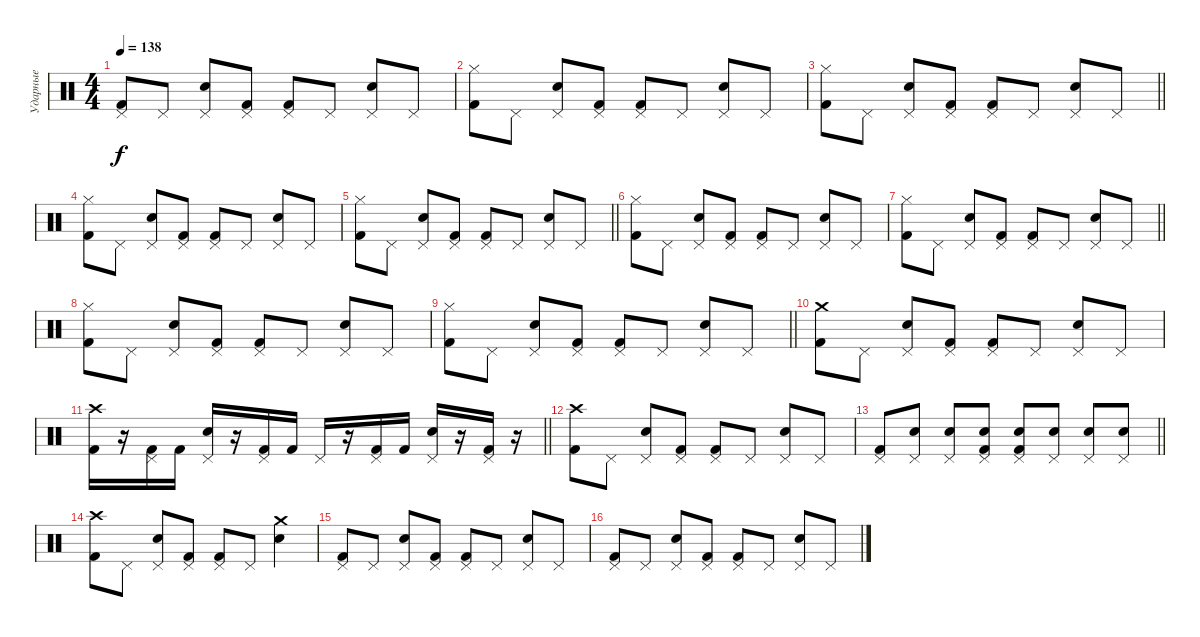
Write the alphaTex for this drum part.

\track ("Ударные" "Ударные") {instrument percussion}
\staff {score}
\articulation defaults
\ts (4 4)
\tempo 138
\clef neutral
\ks c
("Pedal Hi-Hat (hit)" "Kick (hit) 2").8{dy f} "Pedal Hi-Hat (hit)".8 ("Pedal Hi-Hat (hit)" "Electric Snare (hit)").8 ("Pedal Hi-Hat (hit)" "Kick (hit) 2").8 ("Pedal Hi-Hat (hit)" "Kick (hit) 2").8 "Pedal Hi-Hat (hit)".8 ("Pedal Hi-Hat (hit)" "Electric Snare (hit)").8 "Pedal Hi-Hat (hit)".8 |
("Hi-Hat (closed)" "Kick (hit) 2").8 "Pedal Hi-Hat (hit)".8 ("Pedal Hi-Hat (hit)" "Electric Snare (hit)").8 ("Pedal Hi-Hat (hit)" "Kick (hit) 2").8 ("Pedal Hi-Hat (hit)" "Kick (hit) 2").8 "Pedal Hi-Hat (hit)".8 ("Pedal Hi-Hat (hit)" "Electric Snare (hit)").8 "Pedal Hi-Hat (hit)".8 |
\barLineRight lightlight
("Hi-Hat (closed)" "Kick (hit) 2").8 "Pedal Hi-Hat (hit)".8 ("Pedal Hi-Hat (hit)" "Electric Snare (hit)").8 ("Pedal Hi-Hat (hit)" "Kick (hit) 2").8 ("Pedal Hi-Hat (hit)" "Kick (hit) 2").8 "Pedal Hi-Hat (hit)".8 ("Pedal Hi-Hat (hit)" "Electric Snare (hit)").8 "Pedal Hi-Hat (hit)".8 |
("Hi-Hat (closed)" "Kick (hit) 2").8 "Pedal Hi-Hat (hit)".8 ("Pedal Hi-Hat (hit)" "Electric Snare (hit)").8 ("Pedal Hi-Hat (hit)" "Kick (hit) 2").8 ("Pedal Hi-Hat (hit)" "Kick (hit) 2").8 "Pedal Hi-Hat (hit)".8 ("Pedal Hi-Hat (hit)" "Electric Snare (hit)").8 "Pedal Hi-Hat (hit)".8 |
\barLineRight lightlight
("Hi-Hat (closed)" "Kick (hit) 2").8 "Pedal Hi-Hat (hit)".8 ("Pedal Hi-Hat (hit)" "Electric Snare (hit)").8 ("Pedal Hi-Hat (hit)" "Kick (hit) 2").8 ("Pedal Hi-Hat (hit)" "Kick (hit) 2").8 "Pedal Hi-Hat (hit)".8 ("Pedal Hi-Hat (hit)" "Electric Snare (hit)").8 "Pedal Hi-Hat (hit)".8 |
("Hi-Hat (closed)" "Kick (hit) 2").8 "Pedal Hi-Hat (hit)".8 ("Pedal Hi-Hat (hit)" "Electric Snare (hit)").8 ("Pedal Hi-Hat (hit)" "Kick (hit) 2").8 ("Pedal Hi-Hat (hit)" "Kick (hit) 2").8 "Pedal Hi-Hat (hit)".8 ("Pedal Hi-Hat (hit)" "Electric Snare (hit)").8 "Pedal Hi-Hat (hit)".8 |
\barLineRight lightlight
("Hi-Hat (closed)" "Kick (hit) 2").8 "Pedal Hi-Hat (hit)".8 ("Pedal Hi-Hat (hit)" "Electric Snare (hit)").8 ("Pedal Hi-Hat (hit)" "Kick (hit) 2").8 ("Pedal Hi-Hat (hit)" "Kick (hit) 2").8 "Pedal Hi-Hat (hit)".8 ("Pedal Hi-Hat (hit)" "Electric Snare (hit)").8 "Pedal Hi-Hat (hit)".8 |
("Hi-Hat (closed)" "Kick (hit) 2").8 "Pedal Hi-Hat (hit)".8 ("Pedal Hi-Hat (hit)" "Electric Snare (hit)").8 ("Pedal Hi-Hat (hit)" "Kick (hit) 2").8 ("Pedal Hi-Hat (hit)" "Kick (hit) 2").8 "Pedal Hi-Hat (hit)".8 ("Pedal Hi-Hat (hit)" "Electric Snare (hit)").8 "Pedal Hi-Hat (hit)".8 |
\barLineRight lightlight
("Hi-Hat (closed)" "Kick (hit) 2").8 "Pedal Hi-Hat (hit)".8 ("Pedal Hi-Hat (hit)" "Electric Snare (hit)").8 ("Pedal Hi-Hat (hit)" "Kick (hit) 2").8 ("Pedal Hi-Hat (hit)" "Kick (hit) 2").8 "Pedal Hi-Hat (hit)".8 ("Pedal Hi-Hat (hit)" "Electric Snare (hit)").8 "Pedal Hi-Hat (hit)".8 |
("Crash medium (hit)" "Kick (hit) 2").8 "Pedal Hi-Hat (hit)".8 ("Pedal Hi-Hat (hit)" "Electric Snare (hit)").8 ("Pedal Hi-Hat (hit)" "Kick (hit) 2").8 ("Pedal Hi-Hat (hit)" "Kick (hit) 2").8 "Pedal Hi-Hat (hit)".8 ("Pedal Hi-Hat (hit)" "Electric Snare (hit)").8 "Pedal Hi-Hat (hit)".8 |
\barLineRight lightlight
("Crash high (hit)" "Kick (hit) 2").16 r.16 ("Pedal Hi-Hat (hit)" "Kick (hit) 2").16 "Kick (hit) 2".16 ("Pedal Hi-Hat (hit)" "Electric Snare (hit)").16 r.16 ("Pedal Hi-Hat (hit)" "Kick (hit) 2").16 "Kick (hit) 2".16 "Pedal Hi-Hat (hit)".16 r.16 ("Pedal Hi-Hat (hit)" "Kick (hit) 2").16 "Kick (hit) 2".16 ("Pedal Hi-Hat (hit)" "Electric Snare (hit)").16 r.16 ("Pedal Hi-Hat (hit)" "Kick (hit) 2").16 r.16 |
("Crash high (hit)" "Kick (hit) 2").8 "Pedal Hi-Hat (hit)".8 ("Pedal Hi-Hat (hit)" "Electric Snare (hit)").8 ("Pedal Hi-Hat (hit)" "Kick (hit) 2").8 ("Pedal Hi-Hat (hit)" "Kick (hit) 2").8 "Pedal Hi-Hat (hit)".8 ("Pedal Hi-Hat (hit)" "Electric Snare (hit)").8 "Pedal Hi-Hat (hit)".8 |
\barLineRight lightlight
("Pedal Hi-Hat (hit)" "Kick (hit) 2").8 ("Pedal Hi-Hat (hit)" "Electric Snare (hit)").8 ("Pedal Hi-Hat (hit)" "Electric Snare (hit)").8 ("Pedal Hi-Hat (hit)" "Electric Snare (hit)" "Kick (hit) 2").8 ("Pedal Hi-Hat (hit)" "Electric Snare (hit)" "Kick (hit) 2").8 ("Pedal Hi-Hat (hit)" "Electric Snare (hit)").8 ("Pedal Hi-Hat (hit)" "Electric Snare (hit)").8 ("Pedal Hi-Hat (hit)" "Electric Snare (hit)").8 |
("Crash high (hit)" "Kick (hit) 2").8 "Pedal Hi-Hat (hit)".8 ("Pedal Hi-Hat (hit)" "Electric Snare (hit)").8 ("Pedal Hi-Hat (hit)" "Kick (hit) 2").8 ("Pedal Hi-Hat (hit)" "Kick (hit) 2").8 "Pedal Hi-Hat (hit)".8 ("Crash medium (hit)" "Electric Snare (hit)").4 |
("Pedal Hi-Hat (hit)" "Kick (hit) 2").8 "Pedal Hi-Hat (hit)".8 ("Pedal Hi-Hat (hit)" "Electric Snare (hit)").8 ("Pedal Hi-Hat (hit)" "Kick (hit) 2").8 ("Pedal Hi-Hat (hit)" "Kick (hit) 2").8 "Pedal Hi-Hat (hit)".8 ("Pedal Hi-Hat (hit)" "Electric Snare (hit)").8 "Pedal Hi-Hat (hit)".8 |
("Pedal Hi-Hat (hit)" "Kick (hit) 2").8 "Pedal Hi-Hat (hit)".8 ("Pedal Hi-Hat (hit)" "Electric Snare (hit)").8 ("Pedal Hi-Hat (hit)" "Kick (hit) 2").8 ("Pedal Hi-Hat (hit)" "Kick (hit) 2").8 "Pedal Hi-Hat (hit)".8 ("Pedal Hi-Hat (hit)" "Electric Snare (hit)").8 "Pedal Hi-Hat (hit)".8
